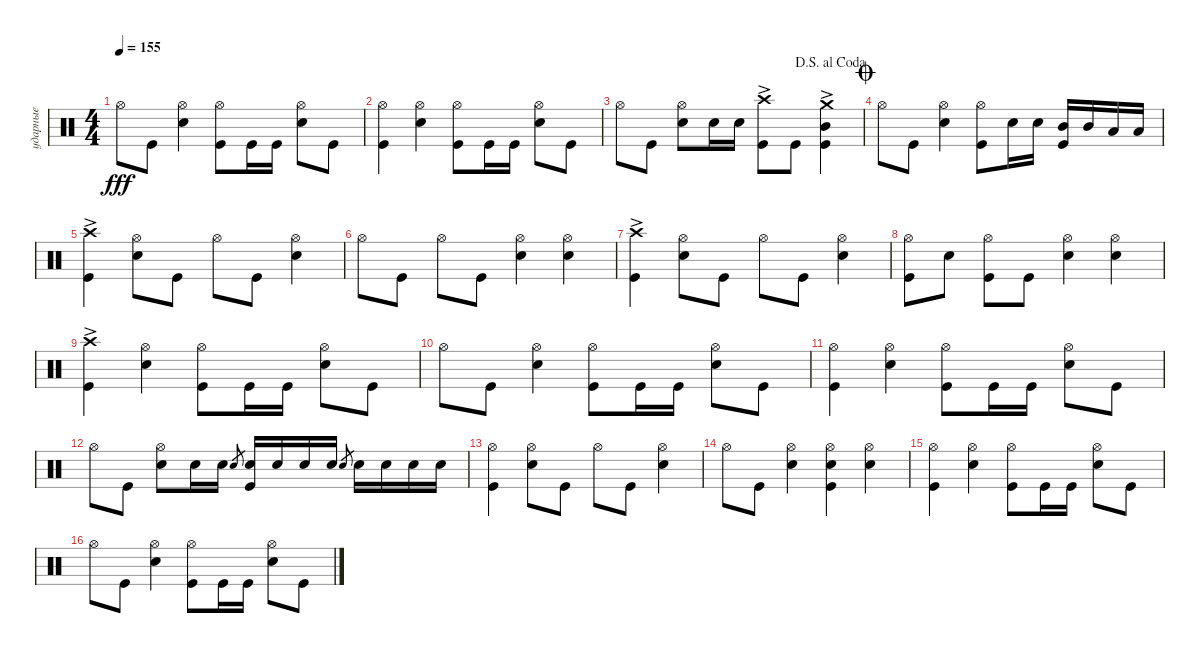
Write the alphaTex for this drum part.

\track ("ударные" "ударные") {instrument percussion}
\staff {score}
\articulation defaults
\ts (4 4)
\tempo 155
\clef neutral
\ks aminor "Hi-Hat (open)".8{dy fff} "Kick (hit)".8
("Snare (hit) 2" "Hi-Hat (open)").4 ("Kick (hit)" "Hi-Hat (open)").8 "Kick (hit)".16 "Kick (hit)".16 ("Snare (hit) 2" "Hi-Hat (open)").8 "Kick (hit)".8 |
("Kick (hit)" "Hi-Hat (open)").4 ("Snare (hit) 2" "Hi-Hat (open)").4 ("Kick (hit)" "Hi-Hat (open)").8 "Kick (hit)".16 "Kick (hit)".16 ("Snare (hit) 2" "Hi-Hat (open)").8 "Kick (hit)".8 |
\jump dalsegnoalcoda "Hi-Hat (open)".8 "Kick (hit)".8
("Snare (hit) 2" "Hi-Hat (open)").8 "Snare (hit) 2".16 "Snare (hit) 2".16 ("Kick (hit)" "Crash high (hit)"{ac}).8 "Kick (hit)".8 ("Kick (hit)" "Mid Tom (hit)" "Crash medium (hit)"{ac}).4 |
\jump coda "Hi-Hat (open)".8 "Kick (hit)".8
("Snare (hit) 2" "Hi-Hat (open)").4 ("Hi-Hat (open)" "Kick (hit)").8 "Snare (hit) 2".16 "Snare (hit) 2".16 ("Mid Tom (hit)" "Kick (hit)").16 "Mid Tom (hit)".16 "Low Tom (hit)".16 "Low Tom (hit)".16 |
("Kick (hit)" "Crash high (hit)"{ac}).4 ("Snare (hit) 2" "Hi-Hat (open)").8 "Kick (hit)".8 "Hi-Hat (open)".8 "Kick (hit)".8 ("Snare (hit) 2" "Hi-Hat (open)").4 |
"Hi-Hat (open)".8 "Kick (hit)".8 "Hi-Hat (open)".8 "Kick (hit)".8 ("Snare (hit) 2" "Hi-Hat (open)").4 ("Snare (hit) 2" "Hi-Hat (open)").4 |
("Kick (hit)" "Crash high (hit)"{ac}).4 ("Snare (hit) 2" "Hi-Hat (open)").8 "Kick (hit)".8 "Hi-Hat (open)".8 "Kick (hit)".8 ("Snare (hit) 2" "Hi-Hat (open)").4 |
("Kick (hit)" "Hi-Hat (open)").8 "Snare (hit) 2".8 ("Kick (hit)" "Hi-Hat (open)").8 "Kick (hit)".8 ("Snare (hit) 2" "Hi-Hat (open)").4 ("Snare (hit) 2" "Hi-Hat (open)").4 |
("Kick (hit)" "Crash high (hit)"{ac}).4 ("Snare (hit) 2" "Hi-Hat (open)").4 ("Kick (hit)" "Hi-Hat (open)").8 "Kick (hit)".16 "Kick (hit)".16 ("Snare (hit) 2" "Hi-Hat (open)").8 "Kick (hit)".8 |
"Hi-Hat (open)".8 "Kick (hit)".8 ("Snare (hit) 2" "Hi-Hat (open)").4 ("Kick (hit)" "Hi-Hat (open)").8 "Kick (hit)".16 "Kick (hit)".16 ("Snare (hit) 2" "Hi-Hat (open)").8 "Kick (hit)".8 |
("Kick (hit)" "Hi-Hat (open)").4 ("Snare (hit) 2" "Hi-Hat (open)").4 ("Kick (hit)" "Hi-Hat (open)").8 "Kick (hit)".16 "Kick (hit)".16 ("Snare (hit) 2" "Hi-Hat (open)").8 "Kick (hit)".8 |
"Hi-Hat (open)".8 "Kick (hit)".8 ("Snare (hit) 2" "Hi-Hat (open)").8 "Snare (hit) 2".16 "Snare (hit) 2".16 "Snare (hit) 2"{h}.8{gr} ("Kick (hit)" "Snare (hit) 2").16 "Snare (hit) 2".16 "Snare (hit) 2".16 "Snare (hit) 2".16 "Snare (hit) 2"{h}.8{gr} "Snare (hit) 2".16 "Snare (hit) 2".16 "Snare (hit) 2".16 "Snare (hit) 2".16 |
("Kick (hit)" "Hi-Hat (open)").4 ("Snare (hit) 2" "Hi-Hat (open)").8 "Kick (hit)".8 "Hi-Hat (open)".8 "Kick (hit)".8 ("Snare (hit) 2" "Hi-Hat (open)").4 |
"Hi-Hat (open)".8 "Kick (hit)".8 ("Snare (hit) 2" "Hi-Hat (open)").4 ("Snare (hit) 2" "Hi-Hat (open)" "Kick (hit)").4 ("Snare (hit) 2" "Hi-Hat (open)").4 |
("Kick (hit)" "Hi-Hat (open)").4 ("Snare (hit) 2" "Hi-Hat (open)").4 ("Hi-Hat (open)" "Kick (hit)").8 "Kick (hit)".16 "Kick (hit)".16 ("Snare (hit) 2" "Hi-Hat (open)").8 "Kick (hit)".8 |
"Hi-Hat (open)".8 "Kick (hit)".8 ("Snare (hit) 2" "Hi-Hat (open)").4 ("Hi-Hat (open)" "Kick (hit)").8 "Kick (hit)".16 "Kick (hit)".16 ("Snare (hit) 2" "Hi-Hat (open)").8 "Kick (hit)".8
